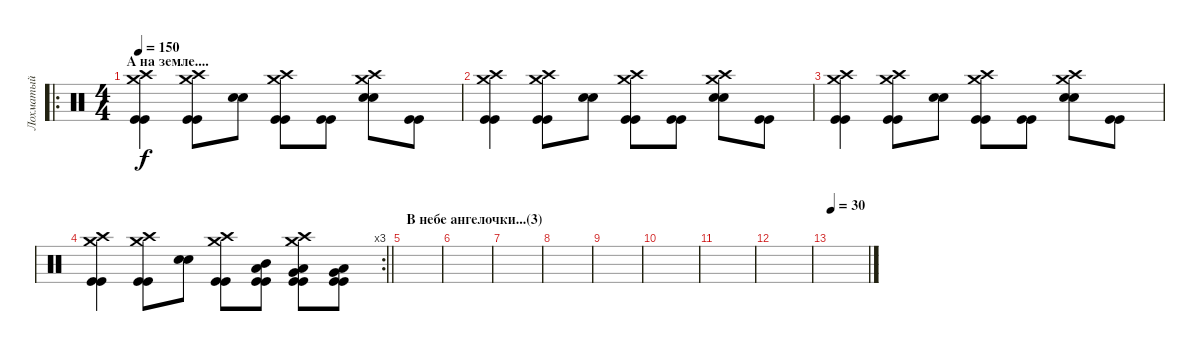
\track ("Лохматый" "Лохматый") {instrument percussion}
\staff {score}
\articulation defaults
\ro
\ts (4 4)
\section ("" "А на земле....")
\tempo 150
\clef neutral
\ks c
("Crash high (hit)" "Crash medium (hit)" "Kick (hit)" "Kick (hit)").4{dy f} ("Crash high (hit)" "Crash medium (hit)" "Kick (hit)" "Kick (hit)").8 ("Electric Snare (hit)" "Electric Snare (hit)").8 ("Crash high (hit)" "Crash medium (hit)" "Kick (hit)" "Kick (hit)").8 ("Kick (hit)" "Kick (hit)").8 ("Crash high (hit)" "Crash medium (hit)" "Electric Snare (hit)" "Electric Snare (hit)").8 ("Kick (hit)" "Kick (hit)").8 |
("Crash high (hit)" "Crash medium (hit)" "Kick (hit)" "Kick (hit)").4 ("Crash high (hit)" "Crash medium (hit)" "Kick (hit)" "Kick (hit)").8 ("Electric Snare (hit)" "Electric Snare (hit)").8 ("Crash high (hit)" "Crash medium (hit)" "Kick (hit)" "Kick (hit)").8 ("Kick (hit)" "Kick (hit)").8 ("Crash high (hit)" "Crash medium (hit)" "Electric Snare (hit)" "Electric Snare (hit)").8 ("Kick (hit)" "Kick (hit)").8 |
("Crash high (hit)" "Crash medium (hit)" "Kick (hit)" "Kick (hit)").4 ("Crash high (hit)" "Crash medium (hit)" "Kick (hit)" "Kick (hit)").8 ("Electric Snare (hit)" "Electric Snare (hit)").8 ("Crash high (hit)" "Crash medium (hit)" "Kick (hit)" "Kick (hit)").8 ("Kick (hit)" "Kick (hit)").8 ("Crash high (hit)" "Crash medium (hit)" "Electric Snare (hit)" "Electric Snare (hit)").8 ("Kick (hit)" "Kick (hit)").8 |
\rc 3
\barLineRight lightlight
("Crash high (hit)" "Crash medium (hit)" "Kick (hit)" "Kick (hit)").4 ("Crash high (hit)" "Crash medium (hit)" "Kick (hit)" "Kick (hit)").8 ("Electric Snare (hit)" "Electric Snare (hit)").8 ("Crash high (hit)" "Crash medium (hit)" "Kick (hit)" "Kick (hit)").8 ("Mid Tom (hit)" "Low Floor Tom (hit)" "Kick (hit)" "Kick (hit)").8 ("Crash high (hit)" "Crash medium (hit)" "Very Low Tom (hit)" "Low Floor Tom (hit)" "Kick (hit)" "Kick (hit)").8 ("Very Low Tom (hit)" "Low Floor Tom (hit)" "Kick (hit)" "Kick (hit)").8 |
\section ("" "В небе ангелочки...(3)")
|
|
|
|
|
|
|
|
\tempo 30
